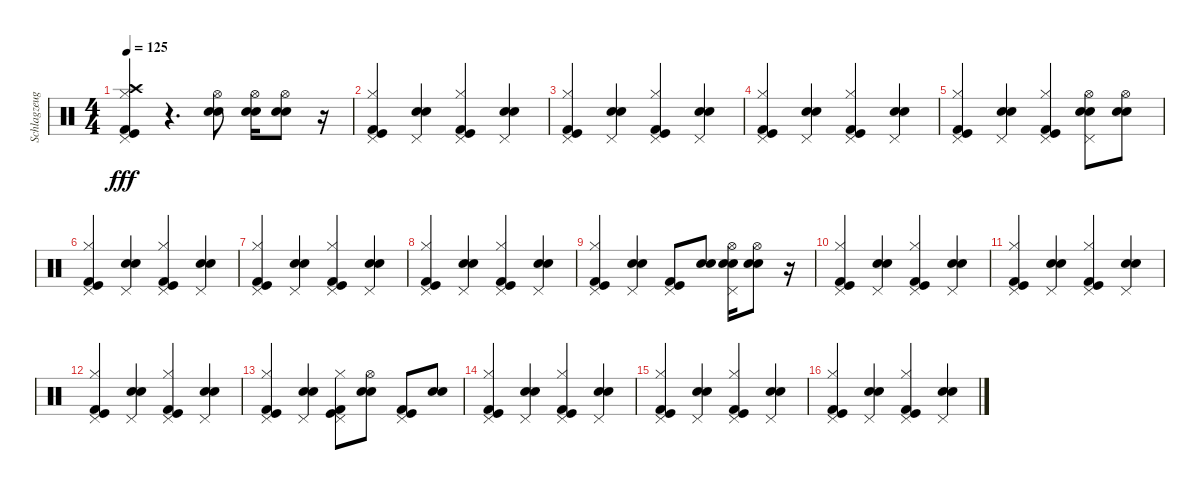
\track ("Schlagzeug" "Schlagzeug") {instrument percussion}
\staff {score}
\articulation defaults
\ts (4 4)
\tempo 125
\clef neutral
\ks c
("Pedal Hi-Hat (hit)" "Kick (hit)" "Hi-Hat (closed)" "Crash high (hit)" "Kick (hit) 2").4{dy fff} r.4{d} ("Electric Snare (hit)" "Snare (hit) 2" "Hi-Hat (open)").8 ("Hi-Hat (open)" "Snare (hit) 2" "Electric Snare (hit)").16 ("Hi-Hat (open)" "Snare (hit) 2" "Electric Snare (hit)").8 r.16 |
("Pedal Hi-Hat (hit)" "Kick (hit)" "Kick (hit) 2" "Hi-Hat (closed)").4 ("Pedal Hi-Hat (hit)" "Snare (hit) 2" "Electric Snare (hit)").4 ("Pedal Hi-Hat (hit)" "Kick (hit)" "Kick (hit) 2" "Hi-Hat (closed)").4 ("Pedal Hi-Hat (hit)" "Snare (hit) 2" "Electric Snare (hit)").4 |
("Pedal Hi-Hat (hit)" "Kick (hit)" "Kick (hit) 2" "Hi-Hat (closed)").4 ("Pedal Hi-Hat (hit)" "Snare (hit) 2" "Electric Snare (hit)").4 ("Pedal Hi-Hat (hit)" "Kick (hit)" "Kick (hit) 2" "Hi-Hat (closed)").4 ("Pedal Hi-Hat (hit)" "Snare (hit) 2" "Electric Snare (hit)").4 |
("Pedal Hi-Hat (hit)" "Kick (hit)" "Kick (hit) 2" "Hi-Hat (closed)").4 ("Pedal Hi-Hat (hit)" "Snare (hit) 2" "Electric Snare (hit)").4 ("Pedal Hi-Hat (hit)" "Kick (hit)" "Kick (hit) 2" "Hi-Hat (closed)").4 ("Pedal Hi-Hat (hit)" "Snare (hit) 2" "Electric Snare (hit)").4 |
("Pedal Hi-Hat (hit)" "Kick (hit)" "Kick (hit) 2" "Hi-Hat (closed)").4 ("Pedal Hi-Hat (hit)" "Snare (hit) 2" "Electric Snare (hit)").4 ("Pedal Hi-Hat (hit)" "Kick (hit)" "Kick (hit) 2" "Hi-Hat (closed)").4 ("Pedal Hi-Hat (hit)" "Snare (hit) 2" "Hi-Hat (open)" "Electric Snare (hit)").8 ("Snare (hit) 2" "Hi-Hat (open)" "Electric Snare (hit)").8 |
("Pedal Hi-Hat (hit)" "Kick (hit)" "Kick (hit) 2" "Hi-Hat (closed)").4 ("Pedal Hi-Hat (hit)" "Snare (hit) 2" "Electric Snare (hit)").4 ("Pedal Hi-Hat (hit)" "Kick (hit)" "Kick (hit) 2" "Hi-Hat (closed)").4 ("Pedal Hi-Hat (hit)" "Snare (hit) 2" "Electric Snare (hit)").4 |
("Pedal Hi-Hat (hit)" "Kick (hit)" "Kick (hit) 2" "Hi-Hat (closed)").4 ("Pedal Hi-Hat (hit)" "Snare (hit) 2" "Electric Snare (hit)").4 ("Pedal Hi-Hat (hit)" "Kick (hit)" "Kick (hit) 2" "Hi-Hat (closed)").4 ("Pedal Hi-Hat (hit)" "Snare (hit) 2" "Electric Snare (hit)").4 |
("Pedal Hi-Hat (hit)" "Kick (hit)" "Kick (hit) 2" "Hi-Hat (closed)").4 ("Pedal Hi-Hat (hit)" "Snare (hit) 2" "Electric Snare (hit)").4 ("Pedal Hi-Hat (hit)" "Kick (hit)" "Kick (hit) 2" "Hi-Hat (closed)").4 ("Pedal Hi-Hat (hit)" "Snare (hit) 2" "Electric Snare (hit)").4 |
("Pedal Hi-Hat (hit)" "Kick (hit)" "Kick (hit) 2" "Hi-Hat (closed)").4 ("Electric Snare (hit)" "Snare (hit) 2" "Pedal Hi-Hat (hit)").4 ("Kick (hit) 2" "Kick (hit)" "Pedal Hi-Hat (hit)").8 ("Snare (hit) 2" "Electric Snare (hit)").8 ("Pedal Hi-Hat (hit)" "Electric Snare (hit)" "Snare (hit) 2" "Hi-Hat (open)").16 ("Snare (hit) 2" "Hi-Hat (open)" "Electric Snare (hit)").8 r.16 |
("Pedal Hi-Hat (hit)" "Kick (hit)" "Kick (hit) 2" "Hi-Hat (closed)").4 ("Pedal Hi-Hat (hit)" "Snare (hit) 2" "Electric Snare (hit)").4 ("Pedal Hi-Hat (hit)" "Kick (hit)" "Kick (hit) 2" "Hi-Hat (closed)").4 ("Pedal Hi-Hat (hit)" "Snare (hit) 2" "Electric Snare (hit)").4 |
("Pedal Hi-Hat (hit)" "Kick (hit)" "Kick (hit) 2" "Hi-Hat (closed)").4 ("Pedal Hi-Hat (hit)" "Snare (hit) 2" "Electric Snare (hit)").4 ("Pedal Hi-Hat (hit)" "Kick (hit)" "Kick (hit) 2" "Hi-Hat (closed)").4 ("Pedal Hi-Hat (hit)" "Snare (hit) 2" "Electric Snare (hit)").4 |
("Pedal Hi-Hat (hit)" "Kick (hit)" "Kick (hit) 2" "Hi-Hat (closed)").4 ("Pedal Hi-Hat (hit)" "Snare (hit) 2" "Electric Snare (hit)").4 ("Pedal Hi-Hat (hit)" "Kick (hit)" "Kick (hit) 2" "Hi-Hat (closed)").4 ("Pedal Hi-Hat (hit)" "Snare (hit) 2" "Electric Snare (hit)").4 |
("Pedal Hi-Hat (hit)" "Kick (hit)" "Kick (hit) 2" "Hi-Hat (closed)").4 ("Pedal Hi-Hat (hit)" "Snare (hit) 2" "Electric Snare (hit)").4 ("Pedal Hi-Hat (hit)" "Kick (hit)" "Kick (hit) 2" "Hi-Hat (closed)").8 ("Snare (hit) 2" "Hi-Hat (open)" "Electric Snare (hit)").8 ("Pedal Hi-Hat (hit)" "Kick (hit)" "Kick (hit) 2").8 ("Snare (hit) 2" "Electric Snare (hit)").8 |
("Pedal Hi-Hat (hit)" "Kick (hit)" "Kick (hit) 2" "Hi-Hat (closed)").4 ("Pedal Hi-Hat (hit)" "Snare (hit) 2" "Electric Snare (hit)").4 ("Pedal Hi-Hat (hit)" "Kick (hit)" "Kick (hit) 2" "Hi-Hat (closed)").4 ("Pedal Hi-Hat (hit)" "Snare (hit) 2" "Electric Snare (hit)").4 |
("Pedal Hi-Hat (hit)" "Kick (hit)" "Kick (hit) 2" "Hi-Hat (closed)").4 ("Pedal Hi-Hat (hit)" "Snare (hit) 2" "Electric Snare (hit)").4 ("Pedal Hi-Hat (hit)" "Kick (hit)" "Kick (hit) 2" "Hi-Hat (closed)").4 ("Pedal Hi-Hat (hit)" "Snare (hit) 2" "Electric Snare (hit)").4 |
("Pedal Hi-Hat (hit)" "Kick (hit)" "Kick (hit) 2" "Hi-Hat (closed)").4 ("Pedal Hi-Hat (hit)" "Snare (hit) 2" "Electric Snare (hit)").4 ("Pedal Hi-Hat (hit)" "Kick (hit)" "Kick (hit) 2" "Hi-Hat (closed)").4 ("Pedal Hi-Hat (hit)" "Snare (hit) 2" "Electric Snare (hit)").4
